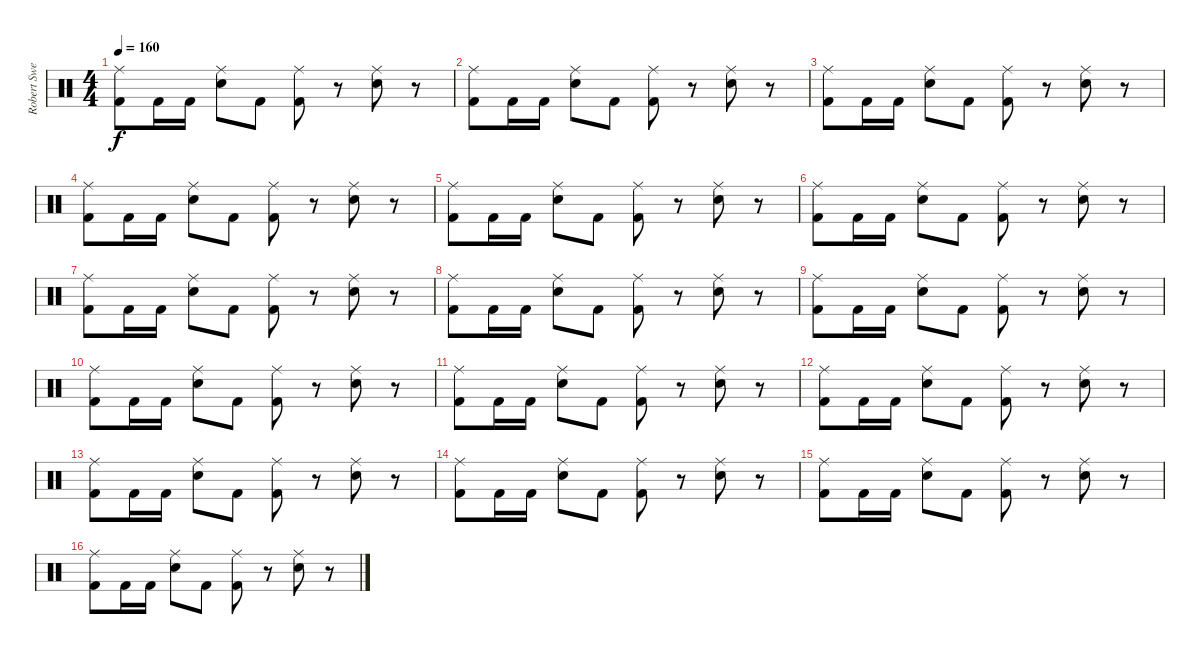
\track ("Robert Sweet" "Robert Swe") {instrument percussion}
\staff {score}
\articulation defaults
\ts (4 4)
\tempo 160
\clef neutral
\ks c
("Ride (middle)" "Kick (hit) 2").8{dy f} "Kick (hit) 2".16 "Kick (hit) 2".16 ("Ride (middle)" "Electric Snare (hit)").8 "Kick (hit) 2".8 ("Ride (middle)" "Kick (hit) 2").8 r.8 ("Ride (middle)" "Electric Snare (hit)").8 r.8 |
("Ride (middle)" "Kick (hit) 2").8 "Kick (hit) 2".16 "Kick (hit) 2".16 ("Ride (middle)" "Electric Snare (hit)").8 "Kick (hit) 2".8 ("Ride (middle)" "Kick (hit) 2").8 r.8 ("Ride (middle)" "Electric Snare (hit)").8 r.8 |
("Ride (middle)" "Kick (hit) 2").8 "Kick (hit) 2".16 "Kick (hit) 2".16 ("Ride (middle)" "Electric Snare (hit)").8 "Kick (hit) 2".8 ("Ride (middle)" "Kick (hit) 2").8 r.8 ("Ride (middle)" "Electric Snare (hit)").8 r.8 |
("Ride (middle)" "Kick (hit) 2").8 "Kick (hit) 2".16 "Kick (hit) 2".16 ("Ride (middle)" "Electric Snare (hit)").8 "Kick (hit) 2".8 ("Ride (middle)" "Kick (hit) 2").8 r.8 ("Ride (middle)" "Electric Snare (hit)").8 r.8 |
("Ride (middle)" "Kick (hit) 2").8 "Kick (hit) 2".16 "Kick (hit) 2".16 ("Ride (middle)" "Electric Snare (hit)").8 "Kick (hit) 2".8 ("Ride (middle)" "Kick (hit) 2").8 r.8 ("Ride (middle)" "Electric Snare (hit)").8 r.8 |
("Ride (middle)" "Kick (hit) 2").8 "Kick (hit) 2".16 "Kick (hit) 2".16 ("Ride (middle)" "Electric Snare (hit)").8 "Kick (hit) 2".8 ("Ride (middle)" "Kick (hit) 2").8 r.8 ("Ride (middle)" "Electric Snare (hit)").8 r.8 |
("Ride (middle)" "Kick (hit) 2").8 "Kick (hit) 2".16 "Kick (hit) 2".16 ("Ride (middle)" "Electric Snare (hit)").8 "Kick (hit) 2".8 ("Ride (middle)" "Kick (hit) 2").8 r.8 ("Ride (middle)" "Electric Snare (hit)").8 r.8 |
("Ride (middle)" "Kick (hit) 2").8 "Kick (hit) 2".16 "Kick (hit) 2".16 ("Ride (middle)" "Electric Snare (hit)").8 "Kick (hit) 2".8 ("Ride (middle)" "Kick (hit) 2").8 r.8 ("Ride (middle)" "Electric Snare (hit)").8 r.8 |
("Ride (middle)" "Kick (hit) 2").8 "Kick (hit) 2".16 "Kick (hit) 2".16 ("Ride (middle)" "Electric Snare (hit)").8 "Kick (hit) 2".8 ("Ride (middle)" "Kick (hit) 2").8 r.8 ("Ride (middle)" "Electric Snare (hit)").8 r.8 |
("Ride (middle)" "Kick (hit) 2").8 "Kick (hit) 2".16 "Kick (hit) 2".16 ("Ride (middle)" "Electric Snare (hit)").8 "Kick (hit) 2".8 ("Ride (middle)" "Kick (hit) 2").8 r.8 ("Ride (middle)" "Electric Snare (hit)").8 r.8 |
("Ride (middle)" "Kick (hit) 2").8 "Kick (hit) 2".16 "Kick (hit) 2".16 ("Ride (middle)" "Electric Snare (hit)").8 "Kick (hit) 2".8 ("Ride (middle)" "Kick (hit) 2").8 r.8 ("Ride (middle)" "Electric Snare (hit)").8 r.8 |
("Ride (middle)" "Kick (hit) 2").8 "Kick (hit) 2".16 "Kick (hit) 2".16 ("Ride (middle)" "Electric Snare (hit)").8 "Kick (hit) 2".8 ("Ride (middle)" "Kick (hit) 2").8 r.8 ("Ride (middle)" "Electric Snare (hit)").8 r.8 |
("Ride (middle)" "Kick (hit) 2").8 "Kick (hit) 2".16 "Kick (hit) 2".16 ("Ride (middle)" "Electric Snare (hit)").8 "Kick (hit) 2".8 ("Ride (middle)" "Kick (hit) 2").8 r.8 ("Ride (middle)" "Electric Snare (hit)").8 r.8 |
("Ride (middle)" "Kick (hit) 2").8 "Kick (hit) 2".16 "Kick (hit) 2".16 ("Ride (middle)" "Electric Snare (hit)").8 "Kick (hit) 2".8 ("Ride (middle)" "Kick (hit) 2").8 r.8 ("Ride (middle)" "Electric Snare (hit)").8 r.8 |
("Ride (middle)" "Kick (hit) 2").8 "Kick (hit) 2".16 "Kick (hit) 2".16 ("Ride (middle)" "Electric Snare (hit)").8 "Kick (hit) 2".8 ("Ride (middle)" "Kick (hit) 2").8 r.8 ("Ride (middle)" "Electric Snare (hit)").8 r.8 |
("Ride (middle)" "Kick (hit) 2").8 "Kick (hit) 2".16 "Kick (hit) 2".16 ("Ride (middle)" "Electric Snare (hit)").8 "Kick (hit) 2".8 ("Ride (middle)" "Kick (hit) 2").8 r.8 ("Ride (middle)" "Electric Snare (hit)").8 r.8
